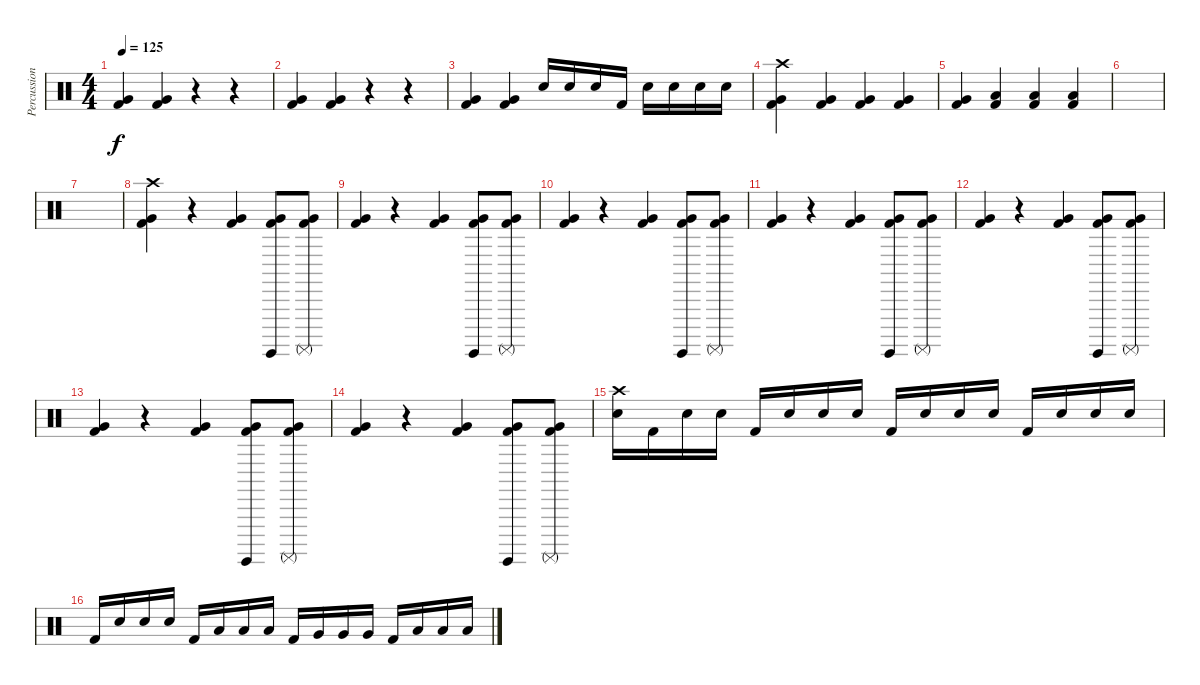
\track ("Percussion" "Percussion") {instrument percussion}
\staff {score}
\articulation defaults
\ts (4 4)
\tempo 125
\clef neutral
\ks c
("Very Low Tom (hit)" "Kick (hit) 2").4{dy f} ("Very Low Tom (hit)" "Kick (hit) 2").4 r.4 r.4 |
("Very Low Tom (hit)" "Kick (hit) 2").4 ("Very Low Tom (hit)" "Kick (hit) 2").4 r.4 r.4 |
("Very Low Tom (hit)" "Kick (hit) 2").4 ("Very Low Tom (hit)" "Kick (hit) 2").4 "Snare (hit) 2".16 "Snare (hit) 2".16 "Snare (hit) 2".16 "Kick (hit) 2".16 "Snare (hit) 2".16 "Snare (hit) 2".16 "Snare (hit) 2".16 "Snare (hit) 2".16 |
("Crash high (hit)" "Very Low Tom (hit)" "Kick (hit) 2").4 ("Very Low Tom (hit)" "Kick (hit) 2").4 ("Very Low Tom (hit)" "Kick (hit) 2").4 ("Very Low Tom (hit)" "Kick (hit) 2").4 |
("Very Low Tom (hit)" "Kick (hit) 2").4 ("Low Floor Tom (hit)" "Kick (hit) 2").4 ("Low Floor Tom (hit)" "Kick (hit) 2").4 ("Low Floor Tom (hit)" "Kick (hit) 2").4 |
|
|
("Crash high (hit)" "Very Low Tom (hit)" "Kick (hit) 2").4 r.4 ("Very Low Tom (hit)" "Kick (hit) 2").4 ("Surdo (hit)" "Very Low Tom (hit)" "Kick (hit) 2").8 ("Surdo (mute)" "Very Low Tom (hit)" "Kick (hit) 2").8 |
("Very Low Tom (hit)" "Kick (hit) 2").4 r.4 ("Very Low Tom (hit)" "Kick (hit) 2").4 ("Surdo (hit)" "Very Low Tom (hit)" "Kick (hit) 2").8 ("Surdo (mute)" "Very Low Tom (hit)" "Kick (hit) 2").8 |
("Very Low Tom (hit)" "Kick (hit) 2").4 r.4 ("Very Low Tom (hit)" "Kick (hit) 2").4 ("Surdo (hit)" "Very Low Tom (hit)" "Kick (hit) 2").8 ("Surdo (mute)" "Very Low Tom (hit)" "Kick (hit) 2").8 |
("Very Low Tom (hit)" "Kick (hit) 2").4 r.4 ("Very Low Tom (hit)" "Kick (hit) 2").4 ("Surdo (hit)" "Very Low Tom (hit)" "Kick (hit) 2").8 ("Surdo (mute)" "Very Low Tom (hit)" "Kick (hit) 2").8 |
("Very Low Tom (hit)" "Kick (hit) 2").4 r.4 ("Very Low Tom (hit)" "Kick (hit) 2").4 ("Surdo (hit)" "Very Low Tom (hit)" "Kick (hit) 2").8 ("Surdo (mute)" "Very Low Tom (hit)" "Kick (hit) 2").8 |
("Very Low Tom (hit)" "Kick (hit) 2").4 r.4 ("Very Low Tom (hit)" "Kick (hit) 2").4 ("Surdo (hit)" "Very Low Tom (hit)" "Kick (hit) 2").8 ("Surdo (mute)" "Very Low Tom (hit)" "Kick (hit) 2").8 |
("Very Low Tom (hit)" "Kick (hit) 2").4 r.4 ("Very Low Tom (hit)" "Kick (hit) 2").4 ("Surdo (hit)" "Very Low Tom (hit)" "Kick (hit) 2").8 ("Surdo (mute)" "Very Low Tom (hit)" "Kick (hit) 2").8 |
("Crash high (hit)" "Snare (hit) 2").16 "Kick (hit) 2".16 "Snare (hit) 2".16 "Snare (hit) 2".16 "Kick (hit) 2".16 "Snare (hit) 2".16 "Snare (hit) 2".16 "Snare (hit) 2".16 "Kick (hit) 2".16 "Snare (hit) 2".16 "Snare (hit) 2".16 "Snare (hit) 2".16 "Kick (hit) 2".16 "Snare (hit) 2".16 "Snare (hit) 2".16 "Snare (hit) 2".16 |
"Kick (hit) 2".16 "Snare (hit) 2".16 "Snare (hit) 2".16 "Snare (hit) 2".16 "Kick (hit) 2".16 "Low Floor Tom (hit)".16 "Low Floor Tom (hit)".16 "Low Floor Tom (hit)".16 "Kick (hit) 2".16 "Very Low Tom (hit)".16 "Very Low Tom (hit)".16 "Very Low Tom (hit)".16 "Kick (hit) 2".16 "Low Tom (hit)".16 "Low Tom (hit)".16 "Low Tom (hit)".16
